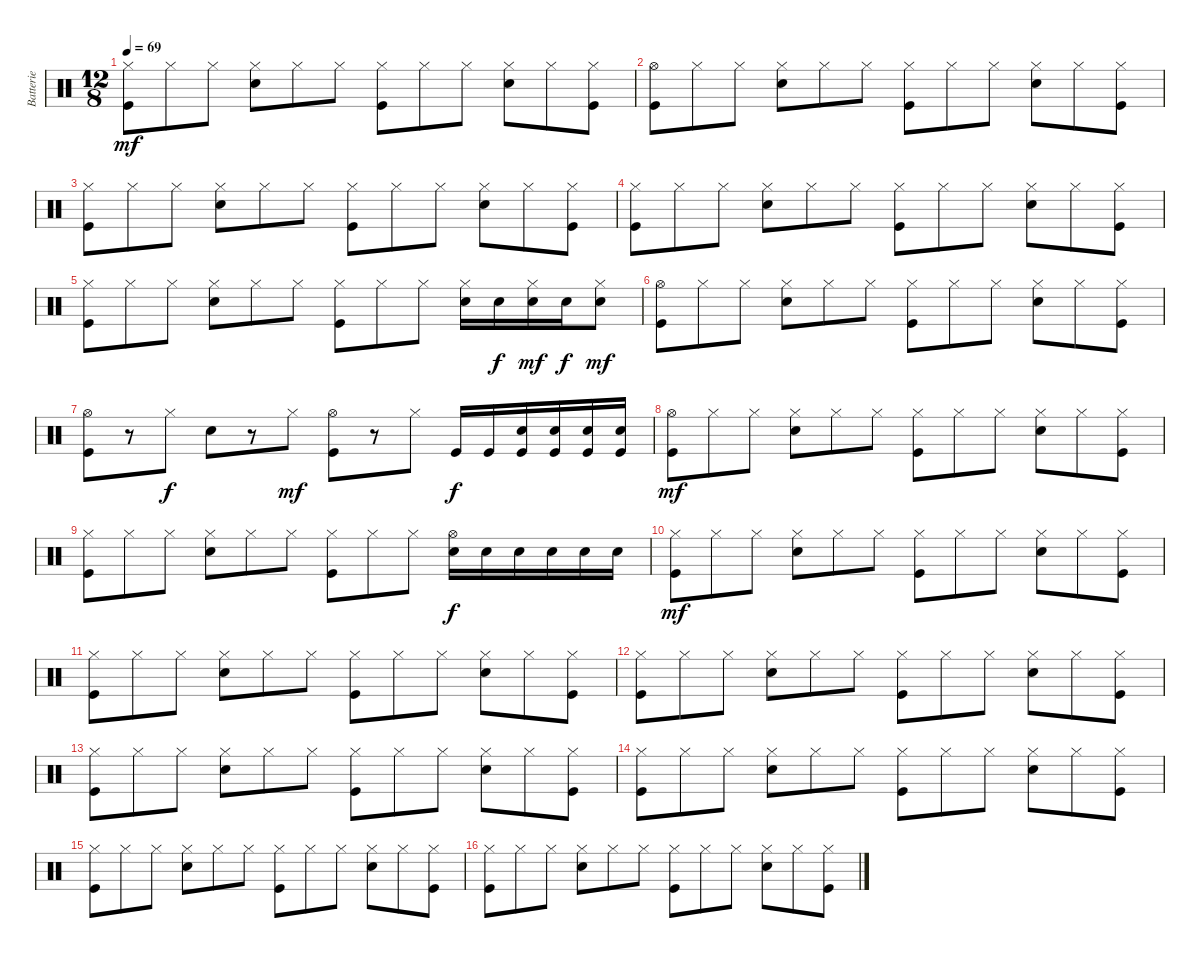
\track ("Batterie" "Batterie") {instrument percussion}
\staff {score}
\articulation defaults
\ts (12 8)
\tempo 69
\clef neutral
\ks c
("Hi-Hat (closed)" "Kick (hit)").8{dy mf} "Hi-Hat (closed)".8 "Hi-Hat (closed)".8 ("Hi-Hat (closed)" "Snare (hit) 2").8 "Hi-Hat (closed)".8 "Hi-Hat (closed)".8 ("Hi-Hat (closed)" "Kick (hit)").8 "Hi-Hat (closed)".8 "Hi-Hat (closed)".8 ("Hi-Hat (closed)" "Snare (hit) 2").8 "Hi-Hat (closed)".8 ("Hi-Hat (closed)" "Kick (hit)").8 |
("Hi-Hat (open)" "Kick (hit)").8 "Hi-Hat (closed)".8 "Hi-Hat (closed)".8 ("Hi-Hat (closed)" "Snare (hit) 2").8 "Hi-Hat (closed)".8 "Hi-Hat (closed)".8 ("Hi-Hat (closed)" "Kick (hit)").8 "Hi-Hat (closed)".8 "Hi-Hat (closed)".8 ("Hi-Hat (closed)" "Snare (hit) 2").8 "Hi-Hat (closed)".8 ("Hi-Hat (closed)" "Kick (hit)").8 |
("Hi-Hat (closed)" "Kick (hit)").8 "Hi-Hat (closed)".8 "Hi-Hat (closed)".8 ("Hi-Hat (closed)" "Snare (hit) 2").8 "Hi-Hat (closed)".8 "Hi-Hat (closed)".8 ("Hi-Hat (closed)" "Kick (hit)").8 "Hi-Hat (closed)".8 "Hi-Hat (closed)".8 ("Hi-Hat (closed)" "Snare (hit) 2").8 "Hi-Hat (closed)".8 ("Hi-Hat (closed)" "Kick (hit)").8 |
("Hi-Hat (closed)" "Kick (hit)").8 "Hi-Hat (closed)".8 "Hi-Hat (closed)".8 ("Hi-Hat (closed)" "Snare (hit) 2").8 "Hi-Hat (closed)".8 "Hi-Hat (closed)".8 ("Hi-Hat (closed)" "Kick (hit)").8 "Hi-Hat (closed)".8 "Hi-Hat (closed)".8 ("Hi-Hat (closed)" "Snare (hit) 2").8 "Hi-Hat (closed)".8 ("Hi-Hat (closed)" "Kick (hit)").8 |
("Hi-Hat (closed)" "Kick (hit)").8 "Hi-Hat (closed)".8 "Hi-Hat (closed)".8 ("Hi-Hat (closed)" "Snare (hit) 2").8 "Hi-Hat (closed)".8 "Hi-Hat (closed)".8 ("Hi-Hat (closed)" "Kick (hit)").8 "Hi-Hat (closed)".8 "Hi-Hat (closed)".8 ("Hi-Hat (closed)" "Snare (hit) 2").16 "Snare (hit) 2".16{dy f} ("Hi-Hat (closed)" "Snare (hit) 2").16{dy mf} "Snare (hit) 2".16{dy f} ("Hi-Hat (closed)" "Snare (hit) 2").8{dy mf} |
("Hi-Hat (open)" "Kick (hit)").8 "Hi-Hat (closed)".8 "Hi-Hat (closed)".8 ("Hi-Hat (closed)" "Snare (hit) 2").8 "Hi-Hat (closed)".8 "Hi-Hat (closed)".8 ("Hi-Hat (closed)" "Kick (hit)").8 "Hi-Hat (closed)".8 "Hi-Hat (closed)".8 ("Hi-Hat (closed)" "Snare (hit) 2").8 "Hi-Hat (closed)".8 ("Hi-Hat (closed)" "Kick (hit)").8 |
("Hi-Hat (open)" "Kick (hit)").8 r.8 "Hi-Hat (closed)".8{dy f} "Snare (hit) 2".8 r.8 "Hi-Hat (closed)".8{dy mf} ("Hi-Hat (open)" "Kick (hit)").8 r.8 "Hi-Hat (closed)".8 "Kick (hit)".16{dy f} "Kick (hit)".16 ("Snare (hit) 2" "Kick (hit)").16 ("Snare (hit) 2" "Kick (hit)").16 ("Snare (hit) 2" "Kick (hit)").16 ("Snare (hit) 2" "Kick (hit)").16 |
("Hi-Hat (open)" "Kick (hit)").8{dy mf} "Hi-Hat (closed)".8 "Hi-Hat (closed)".8 ("Hi-Hat (closed)" "Snare (hit) 2").8 "Hi-Hat (closed)".8 "Hi-Hat (closed)".8 ("Hi-Hat (closed)" "Kick (hit)").8 "Hi-Hat (closed)".8 "Hi-Hat (closed)".8 ("Hi-Hat (closed)" "Snare (hit) 2").8 "Hi-Hat (closed)".8 ("Hi-Hat (closed)" "Kick (hit)").8 |
("Hi-Hat (closed)" "Kick (hit)").8 "Hi-Hat (closed)".8 "Hi-Hat (closed)".8 ("Hi-Hat (closed)" "Snare (hit) 2").8 "Hi-Hat (closed)".8 "Hi-Hat (closed)".8 ("Hi-Hat (closed)" "Kick (hit)").8 "Hi-Hat (closed)".8 "Hi-Hat (closed)".8 ("Hi-Hat (open)" "Snare (hit) 2").16{dy f} "Snare (hit) 2".16 "Snare (hit) 2".16 "Snare (hit) 2".16 "Snare (hit) 2".16 "Snare (hit) 2".16 |
("Hi-Hat (closed)" "Kick (hit)").8{dy mf} "Hi-Hat (closed)".8 "Hi-Hat (closed)".8 ("Hi-Hat (closed)" "Snare (hit) 2").8 "Hi-Hat (closed)".8 "Hi-Hat (closed)".8 ("Hi-Hat (closed)" "Kick (hit)").8 "Hi-Hat (closed)".8 "Hi-Hat (closed)".8 ("Hi-Hat (closed)" "Snare (hit) 2").8 "Hi-Hat (closed)".8 ("Hi-Hat (closed)" "Kick (hit)").8 |
("Hi-Hat (closed)" "Kick (hit)").8 "Hi-Hat (closed)".8 "Hi-Hat (closed)".8 ("Hi-Hat (closed)" "Snare (hit) 2").8 "Hi-Hat (closed)".8 "Hi-Hat (closed)".8 ("Hi-Hat (closed)" "Kick (hit)").8 "Hi-Hat (closed)".8 "Hi-Hat (closed)".8 ("Hi-Hat (closed)" "Snare (hit) 2").8 "Hi-Hat (closed)".8 ("Hi-Hat (closed)" "Kick (hit)").8 |
("Hi-Hat (closed)" "Kick (hit)").8 "Hi-Hat (closed)".8 "Hi-Hat (closed)".8 ("Hi-Hat (closed)" "Snare (hit) 2").8 "Hi-Hat (closed)".8 "Hi-Hat (closed)".8 ("Hi-Hat (closed)" "Kick (hit)").8 "Hi-Hat (closed)".8 "Hi-Hat (closed)".8 ("Hi-Hat (closed)" "Snare (hit) 2").8 "Hi-Hat (closed)".8 ("Hi-Hat (closed)" "Kick (hit)").8 |
("Hi-Hat (closed)" "Kick (hit)").8 "Hi-Hat (closed)".8 "Hi-Hat (closed)".8 ("Hi-Hat (closed)" "Snare (hit) 2").8 "Hi-Hat (closed)".8 "Hi-Hat (closed)".8 ("Hi-Hat (closed)" "Kick (hit)").8 "Hi-Hat (closed)".8 "Hi-Hat (closed)".8 ("Hi-Hat (closed)" "Snare (hit) 2").8 "Hi-Hat (closed)".8 ("Hi-Hat (closed)" "Kick (hit)").8 |
("Hi-Hat (closed)" "Kick (hit)").8 "Hi-Hat (closed)".8 "Hi-Hat (closed)".8 ("Hi-Hat (closed)" "Snare (hit) 2").8 "Hi-Hat (closed)".8 "Hi-Hat (closed)".8 ("Hi-Hat (closed)" "Kick (hit)").8 "Hi-Hat (closed)".8 "Hi-Hat (closed)".8 ("Hi-Hat (closed)" "Snare (hit) 2").8 "Hi-Hat (closed)".8 ("Hi-Hat (closed)" "Kick (hit)").8 |
("Hi-Hat (closed)" "Kick (hit)").8 "Hi-Hat (closed)".8 "Hi-Hat (closed)".8 ("Hi-Hat (closed)" "Snare (hit) 2").8 "Hi-Hat (closed)".8 "Hi-Hat (closed)".8 ("Hi-Hat (closed)" "Kick (hit)").8 "Hi-Hat (closed)".8 "Hi-Hat (closed)".8 ("Hi-Hat (closed)" "Snare (hit) 2").8 "Hi-Hat (closed)".8 ("Hi-Hat (closed)" "Kick (hit)").8 |
("Hi-Hat (closed)" "Kick (hit)").8 "Hi-Hat (closed)".8 "Hi-Hat (closed)".8 ("Hi-Hat (closed)" "Snare (hit) 2").8 "Hi-Hat (closed)".8 "Hi-Hat (closed)".8 ("Hi-Hat (closed)" "Kick (hit)").8 "Hi-Hat (closed)".8 "Hi-Hat (closed)".8 ("Hi-Hat (closed)" "Snare (hit) 2").8 "Hi-Hat (closed)".8 ("Hi-Hat (closed)" "Kick (hit)").8
